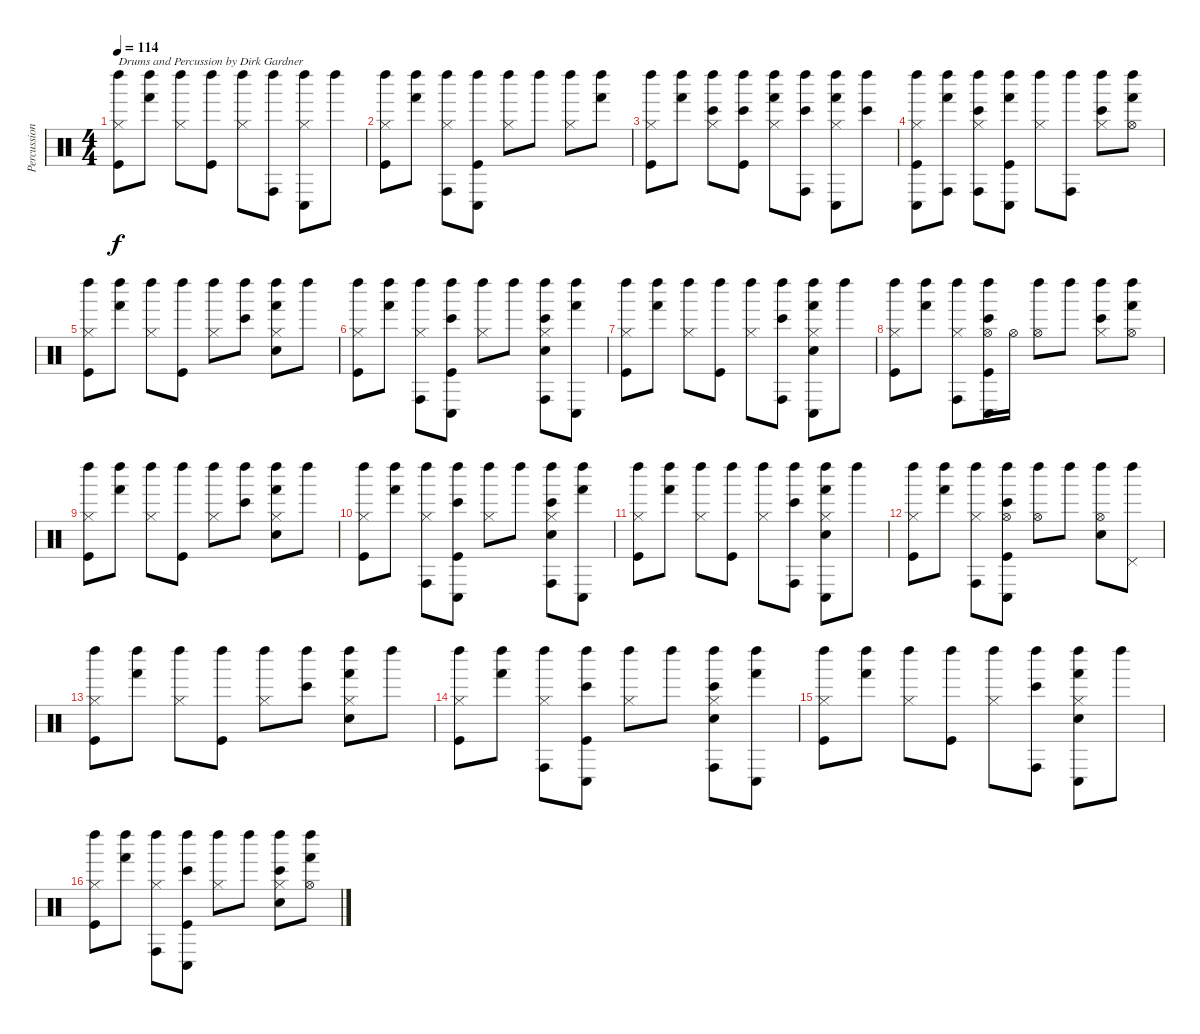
\track ("Percussion" "Percussion") {instrument percussion}
\staff {score}
\articulation defaults
\ts (4 4)
\tempo 114
\clef neutral
\ks c
("Left Maraca (hit)" "Hi-Hat (closed)" "Kick (hit)").8{txt "Drums and Percussion by Dirk Gardner" dy f} ("Left Maraca (hit)" "Hand (hit)").8 ("Left Maraca (hit)" "Hi-Hat (closed)").8 ("Left Maraca (hit)" "Kick (hit)").8 ("Left Maraca (hit)" "Hi-Hat (closed)").8 ("Left Maraca (hit)" "Conga high (hit)").8 ("Left Maraca (hit)" "Conga low (hit)" "Hi-Hat (closed)").8 "Left Maraca (hit)".8 |
("Left Maraca (hit)" "Hi-Hat (closed)" "Kick (hit)").8 ("Left Maraca (hit)" "Hand (hit)").8 ("Left Maraca (hit)" "Conga high (hit)" "Hi-Hat (closed)").8 ("Left Maraca (hit)" "Conga low (hit)" "Kick (hit)").8 ("Left Maraca (hit)" "Hi-Hat (closed)").8 "Left Maraca (hit)".8 ("Left Maraca (hit)" "Hi-Hat (closed)").8 ("Left Maraca (hit)" "Hand (hit)").8 |
("Left Maraca (hit)" "Hi-Hat (closed)" "Kick (hit)").8 ("Left Maraca (hit)" "Hand (hit)").8 ("Left Maraca (hit)" "Hi-Hat (closed)" "Bongo High (hit)").8 ("Left Maraca (hit)" "Bongo High (hit)" "Kick (hit)").8 ("Left Maraca (hit)" "Hi-Hat (closed)" "Hand (hit)").8 ("Left Maraca (hit)" "Conga high (hit)" "Bongo High (hit)").8 ("Left Maraca (hit)" "Conga low (hit)" "Hi-Hat (closed)" "Hand (hit)").8 ("Left Maraca (hit)" "Bongo High (hit)").8 |
("Left Maraca (hit)" "Conga low (hit)" "Hi-Hat (closed)" "Kick (hit)").8 ("Left Maraca (hit)" "Conga high (hit)" "Hand (hit)").8 ("Left Maraca (hit)" "Conga high (hit)" "Hi-Hat (closed)" "Bongo High (hit)").8 ("Left Maraca (hit)" "Conga low (hit)" "Hand (hit)" "Kick (hit)").8 ("Left Maraca (hit)" "Hi-Hat (closed)").8 ("Left Maraca (hit)" "Conga high (hit)").8 ("Left Maraca (hit)" "Hi-Hat (closed)" "Bongo High (hit)").8 ("Left Maraca (hit)" "Hi-Hat (open)" "Hand (hit)").8 |
("Left Maraca (hit)" "Hi-Hat (closed)" "Kick (hit)").8 ("Left Maraca (hit)" "Hand (hit)").8 ("Left Maraca (hit)" "Hi-Hat (closed)").8 ("Left Maraca (hit)" "Kick (hit)").8 ("Left Maraca (hit)" "Hi-Hat (closed)").8 ("Left Maraca (hit)" "Bongo High (hit)").8 ("Left Maraca (hit)" "Hand (hit)" "Hi-Hat (closed)" "Snare (hit) 2").8 "Left Maraca (hit)".8 |
("Left Maraca (hit)" "Hi-Hat (closed)" "Kick (hit)").8 ("Left Maraca (hit)" "Hand (hit)").8 ("Left Maraca (hit)" "Conga high (hit)" "Hi-Hat (closed)").8 ("Left Maraca (hit)" "Conga low (hit)" "Bongo High (hit)" "Kick (hit)").8 ("Left Maraca (hit)" "Hi-Hat (closed)").8 "Left Maraca (hit)".8 ("Left Maraca (hit)" "Conga high (hit)" "Bongo High (hit)" "Hi-Hat (closed)" "Snare (hit) 2").8 ("Left Maraca (hit)" "Conga low (hit)" "Hand (hit)").8 |
("Left Maraca (hit)" "Hi-Hat (closed)" "Kick (hit)").8 ("Left Maraca (hit)" "Hand (hit)").8 ("Left Maraca (hit)" "Hi-Hat (closed)").8 ("Left Maraca (hit)" "Kick (hit)").8 ("Left Maraca (hit)" "Hi-Hat (closed)").8 ("Left Maraca (hit)" "Conga high (hit)" "Bongo High (hit)").8 ("Left Maraca (hit)" "Conga low (hit)" "Hand (hit)" "Hi-Hat (closed)" "Snare (hit) 2").8 "Left Maraca (hit)".8 |
("Left Maraca (hit)" "Hi-Hat (closed)" "Kick (hit)").8 ("Left Maraca (hit)" "Hand (hit)").8 ("Left Maraca (hit)" "Conga high (hit)" "Hi-Hat (closed)").8 ("Left Maraca (hit)" "Conga low (hit)" "Bongo High (hit)" "Hi-Hat (open)" "Kick (hit)").16 "Hi-Hat (open)".16 ("Left Maraca (hit)" "Hi-Hat (open)").8 "Left Maraca (hit)".8 ("Left Maraca (hit)" "Bongo High (hit)" "Hi-Hat (closed)").8 ("Left Maraca (hit)" "Hand (hit)" "Hi-Hat (open)").8 |
("Left Maraca (hit)" "Hi-Hat (closed)" "Kick (hit)").8 ("Left Maraca (hit)" "Hand (hit)").8 ("Left Maraca (hit)" "Hi-Hat (closed)").8 ("Left Maraca (hit)" "Kick (hit)").8 ("Left Maraca (hit)" "Hi-Hat (closed)").8 ("Left Maraca (hit)" "Bongo High (hit)").8 ("Left Maraca (hit)" "Hand (hit)" "Hi-Hat (closed)" "Snare (hit) 2").8 "Left Maraca (hit)".8 |
("Left Maraca (hit)" "Hi-Hat (closed)" "Kick (hit)").8 ("Left Maraca (hit)" "Hand (hit)").8 ("Left Maraca (hit)" "Conga high (hit)" "Hi-Hat (closed)").8 ("Left Maraca (hit)" "Conga low (hit)" "Bongo High (hit)" "Kick (hit)").8 ("Left Maraca (hit)" "Hi-Hat (closed)").8 "Left Maraca (hit)".8 ("Left Maraca (hit)" "Conga high (hit)" "Bongo High (hit)" "Hi-Hat (closed)" "Snare (hit) 2").8 ("Left Maraca (hit)" "Conga low (hit)" "Hand (hit)").8 |
("Left Maraca (hit)" "Hi-Hat (closed)" "Kick (hit)").8 ("Left Maraca (hit)" "Hand (hit)").8 ("Left Maraca (hit)" "Hi-Hat (closed)").8 ("Left Maraca (hit)" "Kick (hit)").8 ("Left Maraca (hit)" "Hi-Hat (closed)").8 ("Left Maraca (hit)" "Conga high (hit)" "Bongo High (hit)").8 ("Left Maraca (hit)" "Conga low (hit)" "Hand (hit)" "Hi-Hat (closed)" "Snare (hit) 2").8 "Left Maraca (hit)".8 |
("Left Maraca (hit)" "Hi-Hat (closed)" "Kick (hit)").8 ("Left Maraca (hit)" "Hand (hit)").8 ("Left Maraca (hit)" "Conga high (hit)" "Hi-Hat (closed)").8 ("Left Maraca (hit)" "Conga low (hit)" "Bongo High (hit)" "Hi-Hat (open)" "Kick (hit)").8 ("Left Maraca (hit)" "Hi-Hat (open)").8 "Left Maraca (hit)".8 ("Left Maraca (hit)" "Hi-Hat (open)" "Snare (hit) 2").8 ("Left Maraca (hit)" "Pedal Hi-Hat (hit)").8 |
("Left Maraca (hit)" "Hi-Hat (closed)" "Kick (hit)").8 ("Left Maraca (hit)" "Hand (hit)").8 ("Left Maraca (hit)" "Hi-Hat (closed)").8 ("Left Maraca (hit)" "Kick (hit)").8 ("Left Maraca (hit)" "Hi-Hat (closed)").8 ("Left Maraca (hit)" "Bongo High (hit)").8 ("Left Maraca (hit)" "Hand (hit)" "Hi-Hat (closed)" "Snare (hit) 2").8 "Left Maraca (hit)".8 |
("Left Maraca (hit)" "Hi-Hat (closed)" "Kick (hit)").8 ("Left Maraca (hit)" "Hand (hit)").8 ("Left Maraca (hit)" "Conga high (hit)" "Hi-Hat (closed)").8 ("Left Maraca (hit)" "Conga low (hit)" "Bongo High (hit)" "Kick (hit)").8 ("Left Maraca (hit)" "Hi-Hat (closed)").8 "Left Maraca (hit)".8 ("Left Maraca (hit)" "Conga high (hit)" "Bongo High (hit)" "Hi-Hat (closed)" "Snare (hit) 2").8 ("Left Maraca (hit)" "Conga low (hit)" "Hand (hit)").8 |
("Left Maraca (hit)" "Hi-Hat (closed)" "Kick (hit)").8 ("Left Maraca (hit)" "Hand (hit)").8 ("Left Maraca (hit)" "Hi-Hat (closed)").8 ("Left Maraca (hit)" "Kick (hit)").8 ("Left Maraca (hit)" "Hi-Hat (closed)").8 ("Left Maraca (hit)" "Conga high (hit)" "Bongo High (hit)").8 ("Left Maraca (hit)" "Conga low (hit)" "Hand (hit)" "Hi-Hat (closed)" "Snare (hit) 2").8 "Left Maraca (hit)".8 |
("Left Maraca (hit)" "Hi-Hat (closed)" "Kick (hit)").8 ("Left Maraca (hit)" "Hand (hit)").8 ("Left Maraca (hit)" "Conga high (hit)" "Hi-Hat (closed)").8 ("Left Maraca (hit)" "Conga low (hit)" "Bongo High (hit)" "Kick (hit)").8 ("Left Maraca (hit)" "Hi-Hat (closed)").8 "Left Maraca (hit)".8 ("Left Maraca (hit)" "Bongo High (hit)" "Hi-Hat (closed)" "Snare (hit) 2").8 ("Left Maraca (hit)" "Hand (hit)" "Hi-Hat (open)").8
